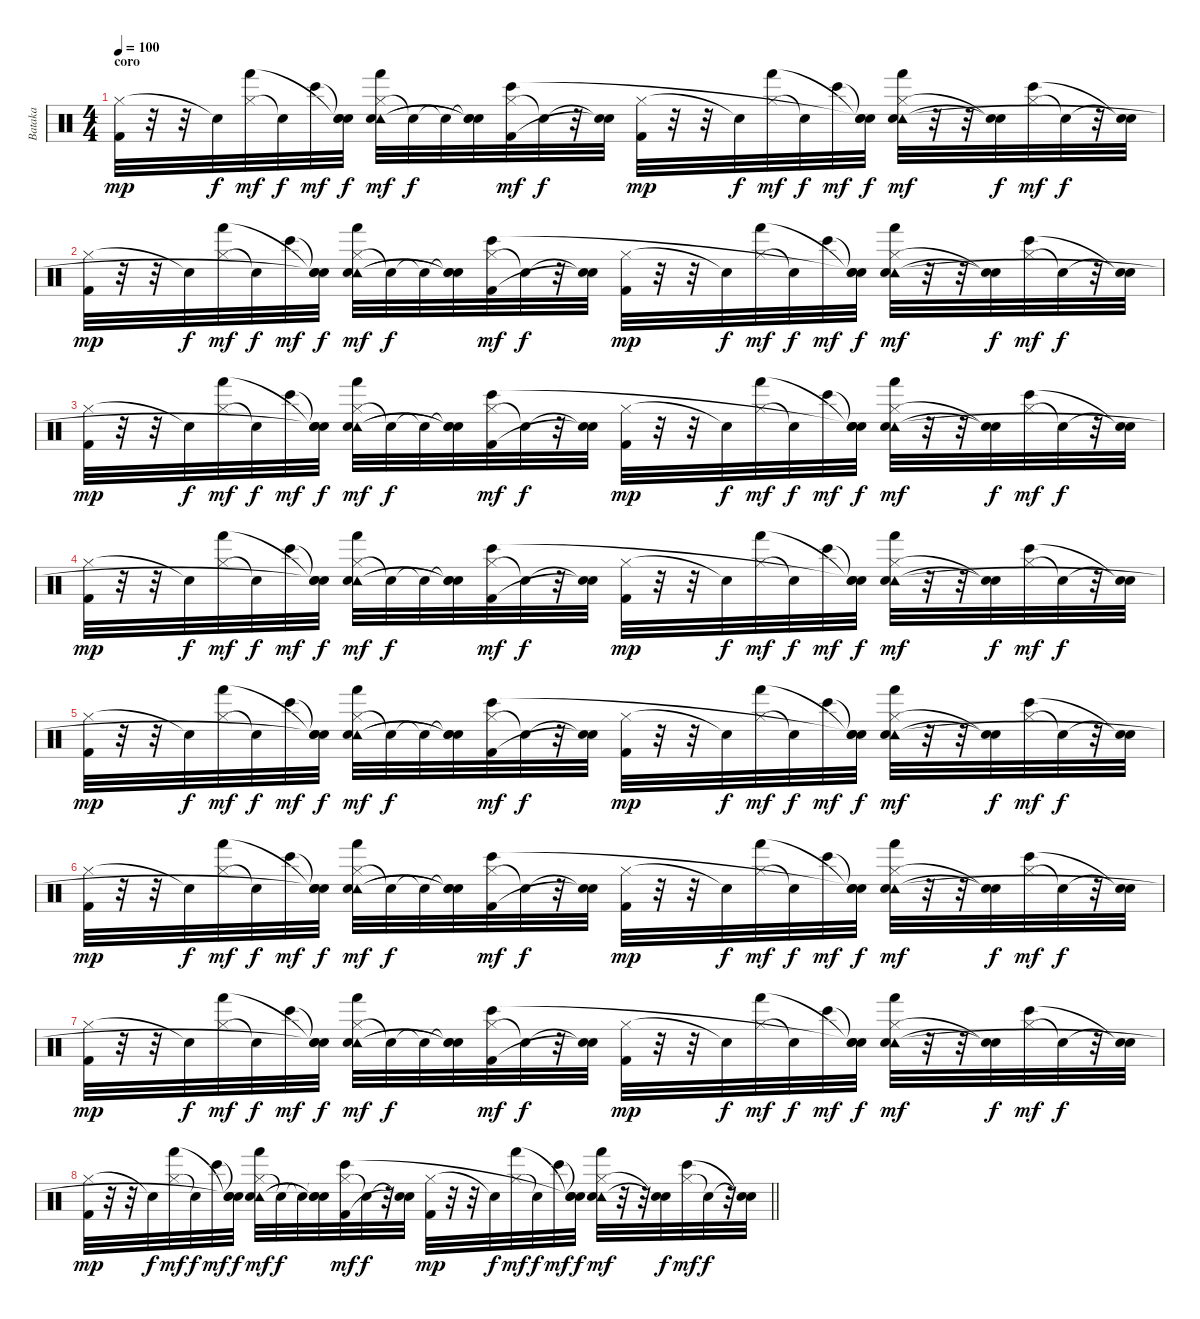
\track ("Bataka" "Bataka") {instrument percussion}
\staff {score}
\articulation defaults
\ts (4 4)
\section ("" "coro")
\tempo 100
\clef neutral
\ks c
("Hi-Hat (closed)" "Kick (hit) 2").32{dy mp} r.32 r.32 "Snare (hit)"{t}.32{dy f} ("Hi-Hat (closed)" "Hand (hit)").32{dy mf} "Snare (hit)"{t}.32{dy f} "Bongo High (hit)".32{dy mf} ("Snare (hit)"{t} "Snare (hit)"{t} "Snare (hit)"{t}).32{dy f} ("Hi-Hat (closed)" "Tambourine (hit)" "Electric Snare (hit)" "Hand (hit)").32{dy mf} "Snare (hit)"{t}.32{dy f} "Snare (hit)"{t}.32 ("Snare (hit)"{t} "Snare (hit)"{t} "Snare (hit)"{t}).32 ("Hi-Hat (closed)" "Kick (hit) 2" "Bongo High (hit)").32{dy mf} "Snare (hit)"{t}.32{dy f} r.32 ("Snare (hit)"{t} "Snare (hit)"{t}).32 ("Hi-Hat (closed)" "Kick (hit) 2").32{dy mp} r.32 r.32 "Snare (hit)"{t}.32{dy f} ("Hi-Hat (closed)" "Hand (hit)").32{dy mf} "Snare (hit)"{t}.32{dy f} "Bongo High (hit)".32{dy mf} ("Snare (hit)"{t} "Snare (hit)"{t} "Snare (hit)"{t}).32{dy f} ("Hi-Hat (closed)" "Tambourine (hit)" "Electric Snare (hit)" "Hand (hit)").32{dy mf} r.32 r.32 ("Snare (hit)"{t} "Snare (hit)"{t}).32{dy f} ("Hi-Hat (closed)" "Bongo High (hit)").32{dy mf} "Snare (hit)"{t}.32{dy f} r.32 ("Snare (hit)"{t} "Snare (hit)"{t}).32 |
("Hi-Hat (closed)" "Kick (hit) 2").32{dy mp} r.32 r.32 "Snare (hit)"{t}.32{dy f} ("Hi-Hat (closed)" "Hand (hit)").32{dy mf} "Snare (hit)"{t}.32{dy f} "Bongo High (hit)".32{dy mf} ("Snare (hit)"{t} "Snare (hit)"{t} "Snare (hit)"{t}).32{dy f} ("Hi-Hat (closed)" "Tambourine (hit)" "Electric Snare (hit)" "Hand (hit)").32{dy mf} "Snare (hit)"{t}.32{dy f} "Snare (hit)"{t}.32 ("Snare (hit)"{t} "Snare (hit)"{t} "Snare (hit)"{t}).32 ("Hi-Hat (closed)" "Kick (hit) 2" "Bongo High (hit)").32{dy mf} "Snare (hit)"{t}.32{dy f} r.32 ("Snare (hit)"{t} "Snare (hit)"{t}).32 ("Hi-Hat (closed)" "Kick (hit) 2").32{dy mp} r.32 r.32 "Snare (hit)"{t}.32{dy f} ("Hi-Hat (closed)" "Hand (hit)").32{dy mf} "Snare (hit)"{t}.32{dy f} "Bongo High (hit)".32{dy mf} ("Snare (hit)"{t} "Snare (hit)"{t} "Snare (hit)"{t}).32{dy f} ("Hi-Hat (closed)" "Tambourine (hit)" "Electric Snare (hit)" "Hand (hit)").32{dy mf} r.32 r.32 ("Snare (hit)"{t} "Snare (hit)"{t}).32{dy f} ("Hi-Hat (closed)" "Bongo High (hit)").32{dy mf} "Snare (hit)"{t}.32{dy f} r.32 ("Snare (hit)"{t} "Snare (hit)"{t}).32 |
("Hi-Hat (closed)" "Kick (hit) 2").32{dy mp} r.32 r.32 "Snare (hit)"{t}.32{dy f} ("Hi-Hat (closed)" "Hand (hit)").32{dy mf} "Snare (hit)"{t}.32{dy f} "Bongo High (hit)".32{dy mf} ("Snare (hit)"{t} "Snare (hit)"{t} "Snare (hit)"{t}).32{dy f} ("Hi-Hat (closed)" "Tambourine (hit)" "Electric Snare (hit)" "Hand (hit)").32{dy mf} "Snare (hit)"{t}.32{dy f} "Snare (hit)"{t}.32 ("Snare (hit)"{t} "Snare (hit)"{t} "Snare (hit)"{t}).32 ("Hi-Hat (closed)" "Kick (hit) 2" "Bongo High (hit)").32{dy mf} "Snare (hit)"{t}.32{dy f} r.32 ("Snare (hit)"{t} "Snare (hit)"{t}).32 ("Hi-Hat (closed)" "Kick (hit) 2").32{dy mp} r.32 r.32 "Snare (hit)"{t}.32{dy f} ("Hi-Hat (closed)" "Hand (hit)").32{dy mf} "Snare (hit)"{t}.32{dy f} "Bongo High (hit)".32{dy mf} ("Snare (hit)"{t} "Snare (hit)"{t} "Snare (hit)"{t}).32{dy f} ("Hi-Hat (closed)" "Tambourine (hit)" "Electric Snare (hit)" "Hand (hit)").32{dy mf} r.32 r.32 ("Snare (hit)"{t} "Snare (hit)"{t}).32{dy f} ("Hi-Hat (closed)" "Bongo High (hit)").32{dy mf} "Snare (hit)"{t}.32{dy f} r.32 ("Snare (hit)"{t} "Snare (hit)"{t}).32 |
("Hi-Hat (closed)" "Kick (hit) 2").32{dy mp} r.32 r.32 "Snare (hit)"{t}.32{dy f} ("Hi-Hat (closed)" "Hand (hit)").32{dy mf} "Snare (hit)"{t}.32{dy f} "Bongo High (hit)".32{dy mf} ("Snare (hit)"{t} "Snare (hit)"{t} "Snare (hit)"{t}).32{dy f} ("Hi-Hat (closed)" "Tambourine (hit)" "Electric Snare (hit)" "Hand (hit)").32{dy mf} "Snare (hit)"{t}.32{dy f} "Snare (hit)"{t}.32 ("Snare (hit)"{t} "Snare (hit)"{t} "Snare (hit)"{t}).32 ("Hi-Hat (closed)" "Kick (hit) 2" "Bongo High (hit)").32{dy mf} "Snare (hit)"{t}.32{dy f} r.32 ("Snare (hit)"{t} "Snare (hit)"{t}).32 ("Hi-Hat (closed)" "Kick (hit) 2").32{dy mp} r.32 r.32 "Snare (hit)"{t}.32{dy f} ("Hi-Hat (closed)" "Hand (hit)").32{dy mf} "Snare (hit)"{t}.32{dy f} "Bongo High (hit)".32{dy mf} ("Snare (hit)"{t} "Snare (hit)"{t} "Snare (hit)"{t}).32{dy f} ("Hi-Hat (closed)" "Tambourine (hit)" "Electric Snare (hit)" "Hand (hit)").32{dy mf} r.32 r.32 ("Snare (hit)"{t} "Snare (hit)"{t}).32{dy f} ("Hi-Hat (closed)" "Bongo High (hit)").32{dy mf} "Snare (hit)"{t}.32{dy f} r.32 ("Snare (hit)"{t} "Snare (hit)"{t}).32 |
("Hi-Hat (closed)" "Kick (hit) 2").32{dy mp} r.32 r.32 "Snare (hit)"{t}.32{dy f} ("Hi-Hat (closed)" "Hand (hit)").32{dy mf} "Snare (hit)"{t}.32{dy f} "Bongo High (hit)".32{dy mf} ("Snare (hit)"{t} "Snare (hit)"{t} "Snare (hit)"{t}).32{dy f} ("Hi-Hat (closed)" "Tambourine (hit)" "Electric Snare (hit)" "Hand (hit)").32{dy mf} "Snare (hit)"{t}.32{dy f} "Snare (hit)"{t}.32 ("Snare (hit)"{t} "Snare (hit)"{t} "Snare (hit)"{t}).32 ("Hi-Hat (closed)" "Kick (hit) 2" "Bongo High (hit)").32{dy mf} "Snare (hit)"{t}.32{dy f} r.32 ("Snare (hit)"{t} "Snare (hit)"{t}).32 ("Hi-Hat (closed)" "Kick (hit) 2").32{dy mp} r.32 r.32 "Snare (hit)"{t}.32{dy f} ("Hi-Hat (closed)" "Hand (hit)").32{dy mf} "Snare (hit)"{t}.32{dy f} "Bongo High (hit)".32{dy mf} ("Snare (hit)"{t} "Snare (hit)"{t} "Snare (hit)"{t}).32{dy f} ("Hi-Hat (closed)" "Tambourine (hit)" "Electric Snare (hit)" "Hand (hit)").32{dy mf} r.32 r.32 ("Snare (hit)"{t} "Snare (hit)"{t}).32{dy f} ("Hi-Hat (closed)" "Bongo High (hit)").32{dy mf} "Snare (hit)"{t}.32{dy f} r.32 ("Snare (hit)"{t} "Snare (hit)"{t}).32 |
("Hi-Hat (closed)" "Kick (hit) 2").32{dy mp} r.32 r.32 "Snare (hit)"{t}.32{dy f} ("Hi-Hat (closed)" "Hand (hit)").32{dy mf} "Snare (hit)"{t}.32{dy f} "Bongo High (hit)".32{dy mf} ("Snare (hit)"{t} "Snare (hit)"{t} "Snare (hit)"{t}).32{dy f} ("Hi-Hat (closed)" "Tambourine (hit)" "Electric Snare (hit)" "Hand (hit)").32{dy mf} "Snare (hit)"{t}.32{dy f} "Snare (hit)"{t}.32 ("Snare (hit)"{t} "Snare (hit)"{t} "Snare (hit)"{t}).32 ("Hi-Hat (closed)" "Kick (hit) 2" "Bongo High (hit)").32{dy mf} "Snare (hit)"{t}.32{dy f} r.32 ("Snare (hit)"{t} "Snare (hit)"{t}).32 ("Hi-Hat (closed)" "Kick (hit) 2").32{dy mp} r.32 r.32 "Snare (hit)"{t}.32{dy f} ("Hi-Hat (closed)" "Hand (hit)").32{dy mf} "Snare (hit)"{t}.32{dy f} "Bongo High (hit)".32{dy mf} ("Snare (hit)"{t} "Snare (hit)"{t} "Snare (hit)"{t}).32{dy f} ("Hi-Hat (closed)" "Tambourine (hit)" "Electric Snare (hit)" "Hand (hit)").32{dy mf} r.32 r.32 ("Snare (hit)"{t} "Snare (hit)"{t}).32{dy f} ("Hi-Hat (closed)" "Bongo High (hit)").32{dy mf} "Snare (hit)"{t}.32{dy f} r.32 ("Snare (hit)"{t} "Snare (hit)"{t}).32 |
("Hi-Hat (closed)" "Kick (hit) 2").32{dy mp} r.32 r.32 "Snare (hit)"{t}.32{dy f} ("Hi-Hat (closed)" "Hand (hit)").32{dy mf} "Snare (hit)"{t}.32{dy f} "Bongo High (hit)".32{dy mf} ("Snare (hit)"{t} "Snare (hit)"{t} "Snare (hit)"{t}).32{dy f} ("Hi-Hat (closed)" "Tambourine (hit)" "Electric Snare (hit)" "Hand (hit)").32{dy mf} "Snare (hit)"{t}.32{dy f} "Snare (hit)"{t}.32 ("Snare (hit)"{t} "Snare (hit)"{t} "Snare (hit)"{t}).32 ("Hi-Hat (closed)" "Kick (hit) 2" "Bongo High (hit)").32{dy mf} "Snare (hit)"{t}.32{dy f} r.32 ("Snare (hit)"{t} "Snare (hit)"{t}).32 ("Hi-Hat (closed)" "Kick (hit) 2").32{dy mp} r.32 r.32 "Snare (hit)"{t}.32{dy f} ("Hi-Hat (closed)" "Hand (hit)").32{dy mf} "Snare (hit)"{t}.32{dy f} "Bongo High (hit)".32{dy mf} ("Snare (hit)"{t} "Snare (hit)"{t} "Snare (hit)"{t}).32{dy f} ("Hi-Hat (closed)" "Tambourine (hit)" "Electric Snare (hit)" "Hand (hit)").32{dy mf} r.32 r.32 ("Snare (hit)"{t} "Snare (hit)"{t}).32{dy f} ("Hi-Hat (closed)" "Bongo High (hit)").32{dy mf} "Snare (hit)"{t}.32{dy f} r.32 ("Snare (hit)"{t} "Snare (hit)"{t}).32 |
\barLineRight lightlight
("Hi-Hat (closed)" "Kick (hit) 2").32{dy mp} r.32 r.32 "Snare (hit)"{t}.32{dy f} ("Hi-Hat (closed)" "Hand (hit)").32{dy mf} "Snare (hit)"{t}.32{dy f} "Bongo High (hit)".32{dy mf} ("Snare (hit)"{t} "Snare (hit)"{t} "Snare (hit)"{t}).32{dy f} ("Hi-Hat (closed)" "Tambourine (hit)" "Electric Snare (hit)" "Hand (hit)").32{dy mf} "Snare (hit)"{t}.32{dy f} "Snare (hit)"{t}.32 ("Snare (hit)"{t} "Snare (hit)"{t} "Snare (hit)"{t}).32 ("Hi-Hat (closed)" "Kick (hit) 2" "Bongo High (hit)").32{dy mf} "Snare (hit)"{t}.32{dy f} r.32 ("Snare (hit)"{t} "Snare (hit)"{t}).32 ("Hi-Hat (closed)" "Kick (hit) 2").32{dy mp} r.32 r.32 "Snare (hit)"{t}.32{dy f} ("Hi-Hat (closed)" "Hand (hit)").32{dy mf} "Snare (hit)"{t}.32{dy f} "Bongo High (hit)".32{dy mf} ("Snare (hit)"{t} "Snare (hit)"{t} "Snare (hit)"{t}).32{dy f} ("Hi-Hat (closed)" "Tambourine (hit)" "Electric Snare (hit)" "Hand (hit)").32{dy mf} r.32 r.32 ("Snare (hit)"{t} "Snare (hit)"{t}).32{dy f} ("Hi-Hat (closed)" "Bongo High (hit)").32{dy mf} "Snare (hit)"{t}.32{dy f} r.32 ("Snare (hit)"{t} "Snare (hit)"{t}).32
